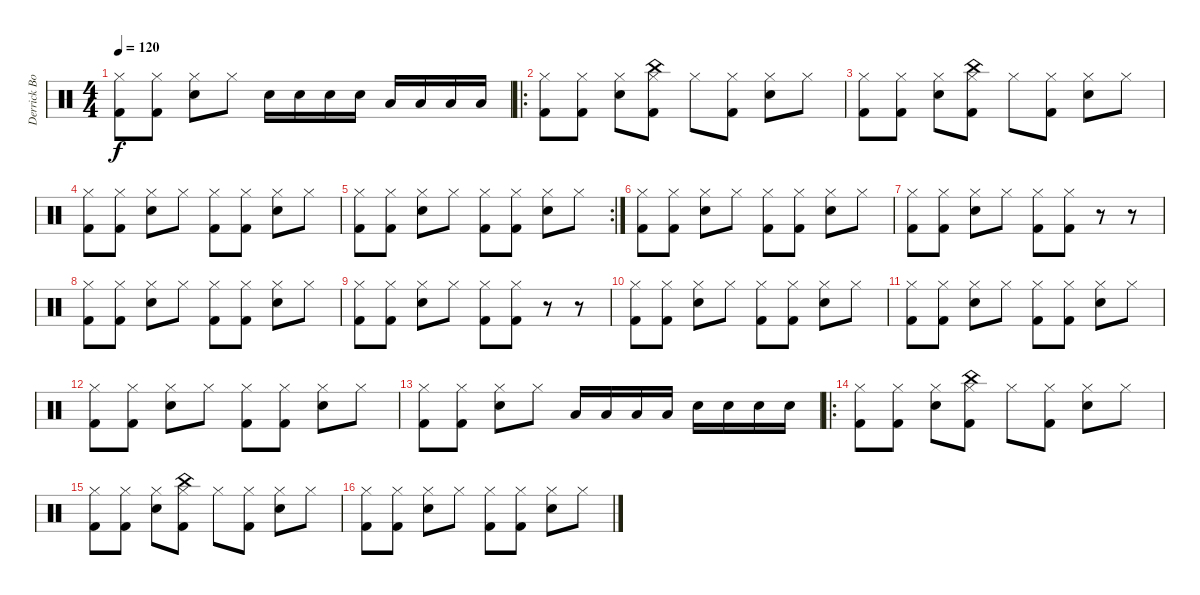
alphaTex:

\track ("Derrick Bostrom" "Derrick Bo") {instrument percussion}
\staff {score}
\articulation defaults
\ts (4 4)
\tempo 120
\clef neutral
\ks c
("Hi-Hat (closed)" "Kick (hit) 2").8{dy f} ("Hi-Hat (closed)" "Kick (hit) 2").8 ("Hi-Hat (closed)" "Snare (hit) 2").8 "Hi-Hat (closed)".8 "Snare (hit) 2".16 "Snare (hit) 2".16 "Snare (hit) 2".16 "Snare (hit) 2".16 "Low Tom (hit)".16 "Low Tom (hit)".16 "Low Tom (hit)".16 "Low Tom (hit)".16 |
\ro
("Hi-Hat (closed)" "Kick (hit) 2").8 ("Hi-Hat (closed)" "Kick (hit) 2").8 ("Hi-Hat (closed)" "Snare (hit) 2").8 ("Hi-Hat (closed)" "China (hit)" "Kick (hit) 2").8 "Hi-Hat (closed)".8 ("Hi-Hat (closed)" "Kick (hit) 2").8 ("Hi-Hat (closed)" "Snare (hit) 2").8 "Hi-Hat (closed)".8 |
("Hi-Hat (closed)" "Kick (hit) 2").8 ("Hi-Hat (closed)" "Kick (hit) 2").8 ("Hi-Hat (closed)" "Snare (hit) 2").8 ("Hi-Hat (closed)" "China (hit)" "Kick (hit) 2").8 "Hi-Hat (closed)".8 ("Hi-Hat (closed)" "Kick (hit) 2").8 ("Hi-Hat (closed)" "Snare (hit) 2").8 "Hi-Hat (closed)".8 |
("Hi-Hat (closed)" "Kick (hit) 2").8 ("Hi-Hat (closed)" "Kick (hit) 2").8 ("Hi-Hat (closed)" "Snare (hit) 2").8 "Hi-Hat (closed)".8 ("Hi-Hat (closed)" "Kick (hit) 2").8 ("Hi-Hat (closed)" "Kick (hit) 2").8 ("Hi-Hat (closed)" "Snare (hit) 2").8 "Hi-Hat (closed)".8 |
\rc 2
("Hi-Hat (closed)" "Kick (hit) 2").8 ("Hi-Hat (closed)" "Kick (hit) 2").8 ("Hi-Hat (closed)" "Snare (hit) 2").8 "Hi-Hat (closed)".8 ("Hi-Hat (closed)" "Kick (hit) 2").8 ("Hi-Hat (closed)" "Kick (hit) 2").8 ("Hi-Hat (closed)" "Snare (hit) 2").8 "Hi-Hat (closed)".8 |
("Hi-Hat (closed)" "Kick (hit) 2").8 ("Hi-Hat (closed)" "Kick (hit) 2").8 ("Hi-Hat (closed)" "Snare (hit) 2").8 "Hi-Hat (closed)".8 ("Hi-Hat (closed)" "Kick (hit) 2").8 ("Hi-Hat (closed)" "Kick (hit) 2").8 ("Hi-Hat (closed)" "Snare (hit) 2").8 "Hi-Hat (closed)".8 |
("Hi-Hat (closed)" "Kick (hit) 2").8 ("Hi-Hat (closed)" "Kick (hit) 2").8 ("Hi-Hat (closed)" "Snare (hit) 2").8 "Hi-Hat (closed)".8 ("Hi-Hat (closed)" "Kick (hit) 2").8 ("Hi-Hat (closed)" "Kick (hit) 2").8 r.8 r.8 |
("Hi-Hat (closed)" "Kick (hit) 2").8 ("Hi-Hat (closed)" "Kick (hit) 2").8 ("Hi-Hat (closed)" "Snare (hit) 2").8 "Hi-Hat (closed)".8 ("Hi-Hat (closed)" "Kick (hit) 2").8 ("Hi-Hat (closed)" "Kick (hit) 2").8 ("Hi-Hat (closed)" "Snare (hit) 2").8 "Hi-Hat (closed)".8 |
("Hi-Hat (closed)" "Kick (hit) 2").8 ("Hi-Hat (closed)" "Kick (hit) 2").8 ("Hi-Hat (closed)" "Snare (hit) 2").8 "Hi-Hat (closed)".8 ("Hi-Hat (closed)" "Kick (hit) 2").8 ("Hi-Hat (closed)" "Kick (hit) 2").8 r.8 r.8 |
("Hi-Hat (closed)" "Kick (hit) 2").8 ("Hi-Hat (closed)" "Kick (hit) 2").8 ("Hi-Hat (closed)" "Snare (hit) 2").8 "Hi-Hat (closed)".8 ("Hi-Hat (closed)" "Kick (hit) 2").8 ("Hi-Hat (closed)" "Kick (hit) 2").8 ("Hi-Hat (closed)" "Snare (hit) 2").8 "Hi-Hat (closed)".8 |
("Hi-Hat (closed)" "Kick (hit) 2").8 ("Hi-Hat (closed)" "Kick (hit) 2").8 ("Hi-Hat (closed)" "Snare (hit) 2").8 "Hi-Hat (closed)".8 ("Hi-Hat (closed)" "Kick (hit) 2").8 ("Hi-Hat (closed)" "Kick (hit) 2").8 ("Hi-Hat (closed)" "Snare (hit) 2").8 "Hi-Hat (closed)".8 |
("Hi-Hat (closed)" "Kick (hit) 2").8 ("Hi-Hat (closed)" "Kick (hit) 2").8 ("Hi-Hat (closed)" "Snare (hit) 2").8 "Hi-Hat (closed)".8 ("Hi-Hat (closed)" "Kick (hit) 2").8 ("Hi-Hat (closed)" "Kick (hit) 2").8 ("Hi-Hat (closed)" "Snare (hit) 2").8 "Hi-Hat (closed)".8 |
("Hi-Hat (closed)" "Kick (hit) 2").8 ("Hi-Hat (closed)" "Kick (hit) 2").8 ("Hi-Hat (closed)" "Snare (hit) 2").8 "Hi-Hat (closed)".8 "Low Tom (hit)".16 "Low Tom (hit)".16 "Low Tom (hit)".16 "Low Tom (hit)".16 "Snare (hit) 2".16 "Snare (hit) 2".16 "Snare (hit) 2".16 "Snare (hit) 2".16 |
\ro
("Hi-Hat (closed)" "Kick (hit) 2").8 ("Hi-Hat (closed)" "Kick (hit) 2").8 ("Hi-Hat (closed)" "Snare (hit) 2").8 ("Hi-Hat (closed)" "China (hit)" "Kick (hit) 2").8 "Hi-Hat (closed)".8 ("Hi-Hat (closed)" "Kick (hit) 2").8 ("Hi-Hat (closed)" "Snare (hit) 2").8 "Hi-Hat (closed)".8 |
("Hi-Hat (closed)" "Kick (hit) 2").8 ("Hi-Hat (closed)" "Kick (hit) 2").8 ("Hi-Hat (closed)" "Snare (hit) 2").8 ("Hi-Hat (closed)" "China (hit)" "Kick (hit) 2").8 "Hi-Hat (closed)".8 ("Hi-Hat (closed)" "Kick (hit) 2").8 ("Hi-Hat (closed)" "Snare (hit) 2").8 "Hi-Hat (closed)".8 |
("Hi-Hat (closed)" "Kick (hit) 2").8 ("Hi-Hat (closed)" "Kick (hit) 2").8 ("Hi-Hat (closed)" "Snare (hit) 2").8 "Hi-Hat (closed)".8 ("Hi-Hat (closed)" "Kick (hit) 2").8 ("Hi-Hat (closed)" "Kick (hit) 2").8 ("Hi-Hat (closed)" "Snare (hit) 2").8 "Hi-Hat (closed)".8
